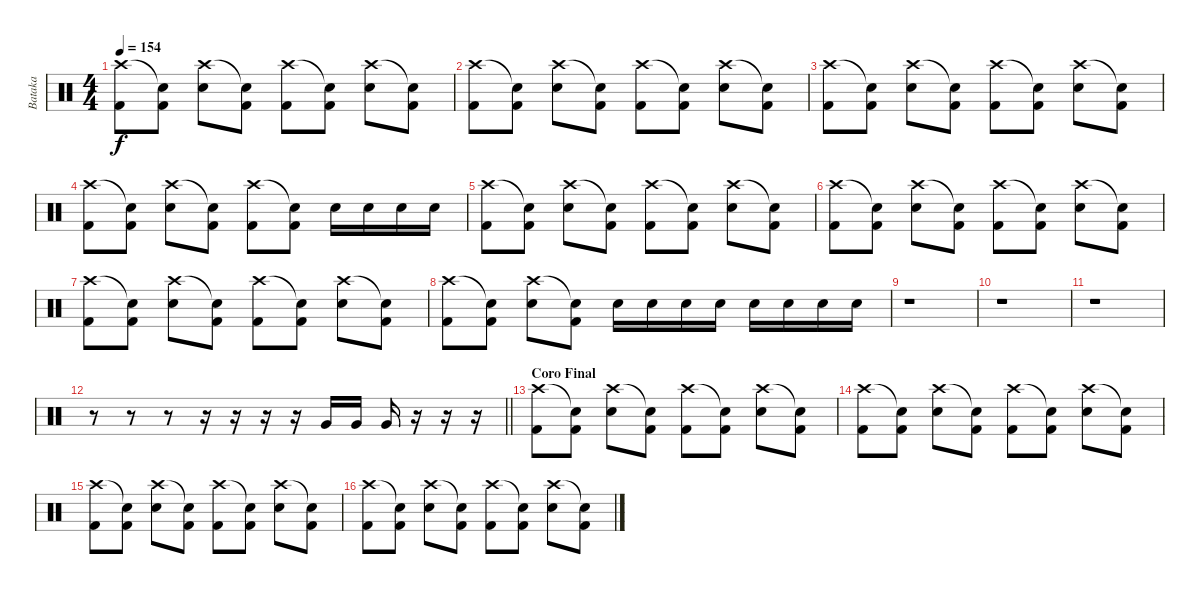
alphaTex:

\track ("Bataka" "Bataka") {instrument percussion}
\staff {score}
\articulation defaults
\ts (4 4)
\tempo 154
\clef neutral
\ks c
("Crash high (hit)" "Kick (hit) 2").8{dy f} ("Snare (hit)"{t} "Kick (hit) 2").8 ("Crash high (hit)" "Electric Snare (hit)").8 ("Snare (hit)"{t} "Kick (hit) 2").8 ("Crash high (hit)" "Kick (hit) 2").8 ("Snare (hit)"{t} "Kick (hit) 2").8 ("Crash high (hit)" "Electric Snare (hit)").8 ("Snare (hit)"{t} "Kick (hit) 2").8 |
("Crash high (hit)" "Kick (hit) 2").8 ("Snare (hit)"{t} "Kick (hit) 2").8 ("Crash high (hit)" "Electric Snare (hit)").8 ("Snare (hit)"{t} "Kick (hit) 2").8 ("Crash high (hit)" "Kick (hit) 2").8 ("Snare (hit)"{t} "Kick (hit) 2").8 ("Crash high (hit)" "Electric Snare (hit)").8 ("Snare (hit)"{t} "Kick (hit) 2").8 |
("Crash high (hit)" "Kick (hit) 2").8 ("Snare (hit)"{t} "Kick (hit) 2").8 ("Crash high (hit)" "Electric Snare (hit)").8 ("Snare (hit)"{t} "Kick (hit) 2").8 ("Crash high (hit)" "Kick (hit) 2").8 ("Snare (hit)"{t} "Kick (hit) 2").8 ("Crash high (hit)" "Electric Snare (hit)").8 ("Snare (hit)"{t} "Kick (hit) 2").8 |
("Crash high (hit)" "Kick (hit) 2").8 ("Snare (hit)"{t} "Kick (hit) 2").8 ("Crash high (hit)" "Electric Snare (hit)").8 ("Snare (hit)"{t} "Kick (hit) 2").8 ("Crash high (hit)" "Kick (hit) 2").8 ("Snare (hit)"{t} "Kick (hit) 2").8 "Electric Snare (hit)".16 "Electric Snare (hit)".16 "Electric Snare (hit)".16 "Electric Snare (hit)".16 |
("Crash high (hit)" "Kick (hit) 2").8 ("Snare (hit)"{t} "Kick (hit) 2").8 ("Crash high (hit)" "Electric Snare (hit)").8 ("Snare (hit)"{t} "Kick (hit) 2").8 ("Crash high (hit)" "Kick (hit) 2").8 ("Snare (hit)"{t} "Kick (hit) 2").8 ("Crash high (hit)" "Electric Snare (hit)").8 ("Snare (hit)"{t} "Kick (hit) 2").8 |
("Crash high (hit)" "Kick (hit) 2").8 ("Snare (hit)"{t} "Kick (hit) 2").8 ("Crash high (hit)" "Electric Snare (hit)").8 ("Snare (hit)"{t} "Kick (hit) 2").8 ("Crash high (hit)" "Kick (hit) 2").8 ("Snare (hit)"{t} "Kick (hit) 2").8 ("Crash high (hit)" "Electric Snare (hit)").8 ("Snare (hit)"{t} "Kick (hit) 2").8 |
("Crash high (hit)" "Kick (hit) 2").8 ("Snare (hit)"{t} "Kick (hit) 2").8 ("Crash high (hit)" "Electric Snare (hit)").8 ("Snare (hit)"{t} "Kick (hit) 2").8 ("Crash high (hit)" "Kick (hit) 2").8 ("Snare (hit)"{t} "Kick (hit) 2").8 ("Crash high (hit)" "Electric Snare (hit)").8 ("Snare (hit)"{t} "Kick (hit) 2").8 |
("Crash high (hit)" "Kick (hit) 2").8 ("Snare (hit)"{t} "Kick (hit) 2").8 ("Crash high (hit)" "Electric Snare (hit)").8 ("Snare (hit)"{t} "Kick (hit) 2").8 "Electric Snare (hit)".16 "Electric Snare (hit)".16 "Electric Snare (hit)".16 "Electric Snare (hit)".16 "Electric Snare (hit)".16 "Electric Snare (hit)".16 "Electric Snare (hit)".16 "Electric Snare (hit)".16 |
r.1 |
r.1 |
r.1 |
\barLineRight lightlight
r.8 r.8 r.8 r.16 r.16 r.16 r.16 "Very Low Tom (hit)".16 "Very Low Tom (hit)".16 "Very Low Tom (hit)".16 r.16 r.16 r.16 |
\section ("" "Coro Final")
("Crash high (hit)" "Kick (hit) 2").8 ("Snare (hit)"{t} "Kick (hit) 2").8 ("Crash high (hit)" "Electric Snare (hit)").8 ("Snare (hit)"{t} "Kick (hit) 2").8 ("Crash high (hit)" "Kick (hit) 2").8 ("Snare (hit)"{t} "Kick (hit) 2").8 ("Crash high (hit)" "Electric Snare (hit)").8 ("Snare (hit)"{t} "Kick (hit) 2").8 |
("Crash high (hit)" "Kick (hit) 2").8 ("Snare (hit)"{t} "Kick (hit) 2").8 ("Crash high (hit)" "Electric Snare (hit)").8 ("Snare (hit)"{t} "Kick (hit) 2").8 ("Crash high (hit)" "Kick (hit) 2").8 ("Snare (hit)"{t} "Kick (hit) 2").8 ("Crash high (hit)" "Electric Snare (hit)").8 ("Snare (hit)"{t} "Kick (hit) 2").8 |
("Crash high (hit)" "Kick (hit) 2").8 ("Snare (hit)"{t} "Kick (hit) 2").8 ("Crash high (hit)" "Electric Snare (hit)").8 ("Snare (hit)"{t} "Kick (hit) 2").8 ("Crash high (hit)" "Kick (hit) 2").8 ("Snare (hit)"{t} "Kick (hit) 2").8 ("Crash high (hit)" "Electric Snare (hit)").8 ("Snare (hit)"{t} "Kick (hit) 2").8 |
("Crash high (hit)" "Kick (hit) 2").8 ("Snare (hit)"{t} "Kick (hit) 2").8 ("Crash high (hit)" "Electric Snare (hit)").8 ("Snare (hit)"{t} "Kick (hit) 2").8 ("Crash high (hit)" "Kick (hit) 2").8 ("Snare (hit)"{t} "Kick (hit) 2").8 ("Crash high (hit)" "Electric Snare (hit)").8 ("Snare (hit)"{t} "Kick (hit) 2").8
